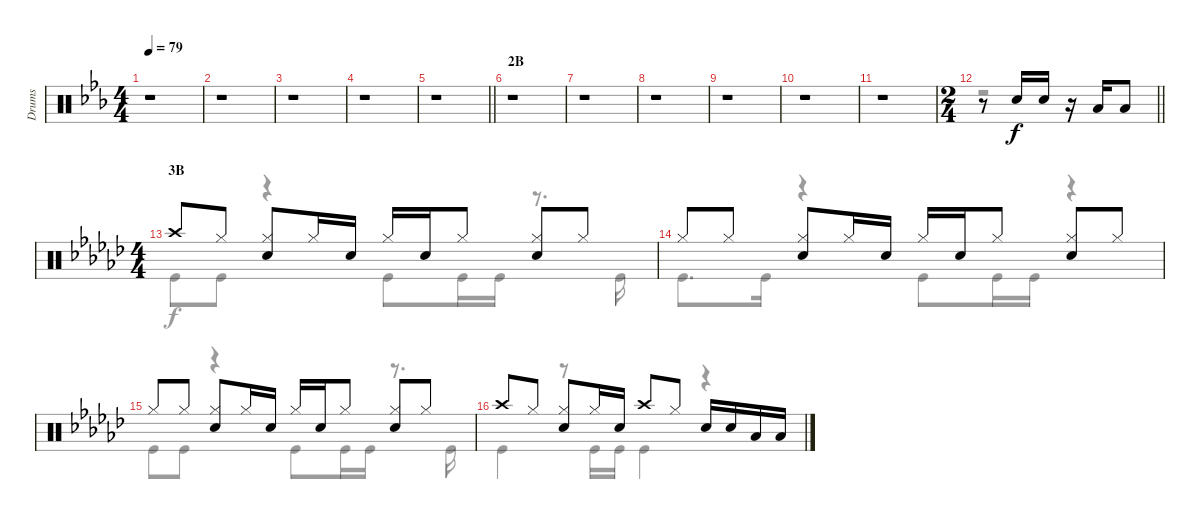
\track ("Drums" "Drums") {instrument percussion}
\staff {score}
\articulation defaults
\voice
\ts (4 4)
\tempo 79
\clef neutral
\ks eb
r.1{dy f} |
r.1 |
r.1 |
r.1 |
\barLineRight lightlight
r.1 |
\section ("" "2B")
r.1 |
r.1 |
r.1 |
r.1 |
r.1 |
r.1 |
\ts (2 4)
\barLineRight lightlight
r.8 "Snare (hit) 2".16 "Snare (hit) 2".16 r.16 "Low Tom (hit)".16 "Low Tom (hit)".8 |
\ts (4 4)
\section ("" "3B")
\ks gb "Crash high (hit)".8 "Hi-Hat (closed)".8
("Hi-Hat (closed)" "Snare (hit) 2").8 "Hi-Hat (closed)".16 "Snare (hit) 2".16 "Hi-Hat (closed)".16 "Snare (hit) 2".16 "Hi-Hat (closed)".8 ("Hi-Hat (closed)" "Snare (hit) 2").8 "Hi-Hat (closed)".8 |
"Hi-Hat (closed)".8 "Hi-Hat (closed)".8 ("Hi-Hat (closed)" "Snare (hit) 2").8 "Hi-Hat (closed)".16 "Snare (hit) 2".16 "Hi-Hat (closed)".16 "Snare (hit) 2".16 "Hi-Hat (closed)".8 ("Hi-Hat (closed)" "Snare (hit) 2").8 "Hi-Hat (closed)".8 |
"Hi-Hat (closed)".8 "Hi-Hat (closed)".8 ("Hi-Hat (closed)" "Snare (hit) 2").8 "Hi-Hat (closed)".16 "Snare (hit) 2".16 "Hi-Hat (closed)".16 "Snare (hit) 2".16 "Hi-Hat (closed)".8 ("Hi-Hat (closed)" "Snare (hit) 2").8 "Hi-Hat (closed)".8 |
"Crash high (hit)".8 "Hi-Hat (closed)".8 ("Hi-Hat (closed)" "Snare (hit) 2").8 "Hi-Hat (closed)".16 "Snare (hit) 2".16 "Crash high (hit)".8 "Hi-Hat (closed)".8 "Snare (hit) 2".16 "Snare (hit) 2".16 "Low Tom (hit)".16 "Low Tom (hit)".16
\voice
\clef neutral
\ottava regular
\simile none
\ks eb
r.1{dy f} |
r.1 |
r.1 |
r.1 |
\barLineRight lightlight
r.1 |
r.1 |
r.1 |
r.1 |
r.1 |
r.1 |
r.1 |
\barLineRight lightlight
r.2 |
\ks gb "Kick (hit)".8 "Kick (hit)".8
r.4 "Kick (hit)".8 "Kick (hit)".16 "Kick (hit)".16 r.8{d} "Kick (hit)".16 |
"Kick (hit)".8{d} "Kick (hit)".16 r.4 "Kick (hit)".8 "Kick (hit)".16 "Kick (hit)".16 r.4 |
"Kick (hit)".8 "Kick (hit)".8 r.4 "Kick (hit)".8 "Kick (hit)".16 "Kick (hit)".16 r.8{d} "Kick (hit)".16 |
"Kick (hit)".4 r.8 "Kick (hit)".16 "Kick (hit)".16 "Kick (hit)".4 r.4
